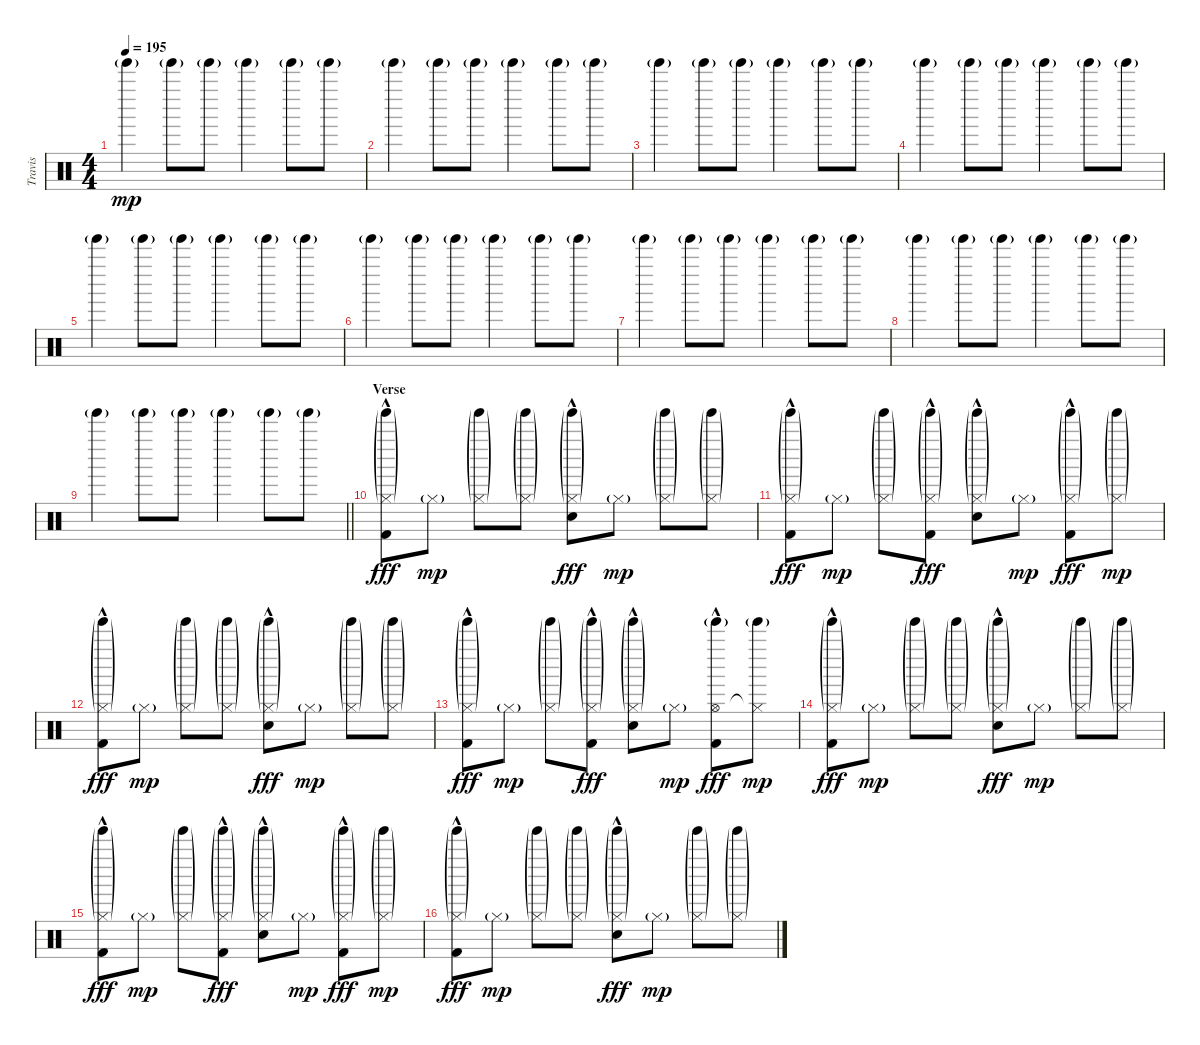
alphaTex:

\track ("Travis" "Travis") {instrument percussion}
\staff {score}
\articulation defaults
\ts (4 4)
\tempo 195
\clef neutral
\ks c "Tinkle Bell (hit)"{g}.4{dy mp} "Tinkle Bell (hit)"{g}.8 "Tinkle Bell (hit)"{g}.8 "Tinkle Bell (hit)"{g}.4 "Tinkle Bell (hit)"{g}.8 "Tinkle Bell (hit)"{g}.8
|
"Tinkle Bell (hit)"{g}.4 "Tinkle Bell (hit)"{g}.8 "Tinkle Bell (hit)"{g}.8 "Tinkle Bell (hit)"{g}.4 "Tinkle Bell (hit)"{g}.8 "Tinkle Bell (hit)"{g}.8 |
"Tinkle Bell (hit)"{g}.4 "Tinkle Bell (hit)"{g}.8 "Tinkle Bell (hit)"{g}.8 "Tinkle Bell (hit)"{g}.4 "Tinkle Bell (hit)"{g}.8 "Tinkle Bell (hit)"{g}.8 |
"Tinkle Bell (hit)"{g}.4 "Tinkle Bell (hit)"{g}.8 "Tinkle Bell (hit)"{g}.8 "Tinkle Bell (hit)"{g}.4 "Tinkle Bell (hit)"{g}.8 "Tinkle Bell (hit)"{g}.8 |
"Tinkle Bell (hit)"{g}.4 "Tinkle Bell (hit)"{g}.8 "Tinkle Bell (hit)"{g}.8 "Tinkle Bell (hit)"{g}.4 "Tinkle Bell (hit)"{g}.8 "Tinkle Bell (hit)"{g}.8 |
"Tinkle Bell (hit)"{g}.4 "Tinkle Bell (hit)"{g}.8 "Tinkle Bell (hit)"{g}.8 "Tinkle Bell (hit)"{g}.4 "Tinkle Bell (hit)"{g}.8 "Tinkle Bell (hit)"{g}.8 |
"Tinkle Bell (hit)"{g}.4 "Tinkle Bell (hit)"{g}.8 "Tinkle Bell (hit)"{g}.8 "Tinkle Bell (hit)"{g}.4 "Tinkle Bell (hit)"{g}.8 "Tinkle Bell (hit)"{g}.8 |
"Tinkle Bell (hit)"{g}.4 "Tinkle Bell (hit)"{g}.8 "Tinkle Bell (hit)"{g}.8 "Tinkle Bell (hit)"{g}.4 "Tinkle Bell (hit)"{g}.8 "Tinkle Bell (hit)"{g}.8 |
\barLineRight lightlight "Tinkle Bell (hit)"{g}.4 "Tinkle Bell (hit)"{g}.8 "Tinkle Bell (hit)"{g}.8 "Tinkle Bell (hit)"{g}.4 "Tinkle Bell (hit)"{g}.8 "Tinkle Bell (hit)"{g}.8
|
\section ("" "Verse")
("Tinkle Bell (hit)"{g} "Hi-Hat (closed)"{g} "Kick (hit) 2"{hac}).8{dy fff volume 9} "Hi-Hat (closed)"{g}.8{dy mp} ("Tinkle Bell (hit)"{g} "Hi-Hat (closed)"{g}).8 ("Tinkle Bell (hit)"{g} "Hi-Hat (closed)"{g}).8 ("Tinkle Bell (hit)"{g} "Hi-Hat (closed)"{g} "Electric Snare (hit)"{hac}).8{dy fff} "Hi-Hat (closed)"{g}.8{dy mp} ("Tinkle Bell (hit)"{g} "Hi-Hat (closed)"{g}).8 ("Tinkle Bell (hit)"{g} "Hi-Hat (closed)"{g}).8 |
("Tinkle Bell (hit)"{g} "Hi-Hat (closed)"{g} "Kick (hit) 2"{hac}).8{dy fff} "Hi-Hat (closed)"{g}.8{dy mp} ("Tinkle Bell (hit)"{g} "Hi-Hat (closed)"{g}).8 ("Tinkle Bell (hit)"{g} "Hi-Hat (closed)"{g} "Kick (hit) 2"{hac}).8{dy fff} ("Tinkle Bell (hit)"{g} "Hi-Hat (closed)"{g} "Electric Snare (hit)"{hac}).8 "Hi-Hat (closed)"{g}.8{dy mp} ("Tinkle Bell (hit)"{g} "Hi-Hat (closed)"{g} "Kick (hit) 2"{hac}).8{dy fff} ("Tinkle Bell (hit)"{g} "Hi-Hat (closed)"{g}).8{dy mp} |
("Tinkle Bell (hit)"{g} "Hi-Hat (closed)"{g} "Kick (hit) 2"{hac}).8{dy fff} "Hi-Hat (closed)"{g}.8{dy mp} ("Tinkle Bell (hit)"{g} "Hi-Hat (closed)"{g}).8 ("Tinkle Bell (hit)"{g} "Hi-Hat (closed)"{g}).8 ("Tinkle Bell (hit)"{g} "Hi-Hat (closed)"{g} "Electric Snare (hit)"{hac}).8{dy fff} "Hi-Hat (closed)"{g}.8{dy mp} ("Tinkle Bell (hit)"{g} "Hi-Hat (closed)"{g}).8 ("Tinkle Bell (hit)"{g} "Hi-Hat (closed)"{g}).8 |
("Tinkle Bell (hit)"{g} "Hi-Hat (closed)"{g} "Kick (hit) 2"{hac}).8{dy fff} "Hi-Hat (closed)"{g}.8{dy mp} ("Tinkle Bell (hit)"{g} "Hi-Hat (closed)"{g}).8 ("Tinkle Bell (hit)"{g} "Hi-Hat (closed)"{g} "Kick (hit) 2"{hac}).8{dy fff} ("Tinkle Bell (hit)"{g} "Hi-Hat (closed)"{g} "Electric Snare (hit)"{hac}).8 "Hi-Hat (closed)"{g}.8{dy mp} ("Tinkle Bell (hit)"{g} "Hi-Hat (open)" "Kick (hit) 2"{hac}).8{dy fff} ("Tinkle Bell (hit)"{g} "Hi-Hat (closed)"{t}).8{dy mp} |
("Tinkle Bell (hit)"{g} "Hi-Hat (closed)"{g} "Kick (hit) 2"{hac}).8{dy fff} "Hi-Hat (closed)"{g}.8{dy mp} ("Tinkle Bell (hit)"{g} "Hi-Hat (closed)"{g}).8 ("Tinkle Bell (hit)"{g} "Hi-Hat (closed)"{g}).8 ("Tinkle Bell (hit)"{g} "Hi-Hat (closed)"{g} "Electric Snare (hit)"{hac}).8{dy fff} "Hi-Hat (closed)"{g}.8{dy mp} ("Tinkle Bell (hit)"{g} "Hi-Hat (closed)"{g}).8 ("Tinkle Bell (hit)"{g} "Hi-Hat (closed)"{g}).8 |
("Tinkle Bell (hit)"{g} "Hi-Hat (closed)"{g} "Kick (hit) 2"{hac}).8{dy fff} "Hi-Hat (closed)"{g}.8{dy mp} ("Tinkle Bell (hit)"{g} "Hi-Hat (closed)"{g}).8 ("Tinkle Bell (hit)"{g} "Hi-Hat (closed)"{g} "Kick (hit) 2"{hac}).8{dy fff} ("Tinkle Bell (hit)"{g} "Hi-Hat (closed)"{g} "Electric Snare (hit)"{hac}).8 "Hi-Hat (closed)"{g}.8{dy mp} ("Tinkle Bell (hit)"{g} "Hi-Hat (closed)"{g} "Kick (hit) 2"{hac}).8{dy fff} ("Tinkle Bell (hit)"{g} "Hi-Hat (closed)"{g}).8{dy mp} |
("Tinkle Bell (hit)"{g} "Hi-Hat (closed)"{g} "Kick (hit) 2"{hac}).8{dy fff} "Hi-Hat (closed)"{g}.8{dy mp} ("Tinkle Bell (hit)"{g} "Hi-Hat (closed)"{g}).8 ("Tinkle Bell (hit)"{g} "Hi-Hat (closed)"{g}).8 ("Tinkle Bell (hit)"{g} "Hi-Hat (closed)"{g} "Electric Snare (hit)"{hac}).8{dy fff} "Hi-Hat (closed)"{g}.8{dy mp} ("Tinkle Bell (hit)"{g} "Hi-Hat (closed)"{g}).8 ("Tinkle Bell (hit)"{g} "Hi-Hat (closed)"{g}).8
